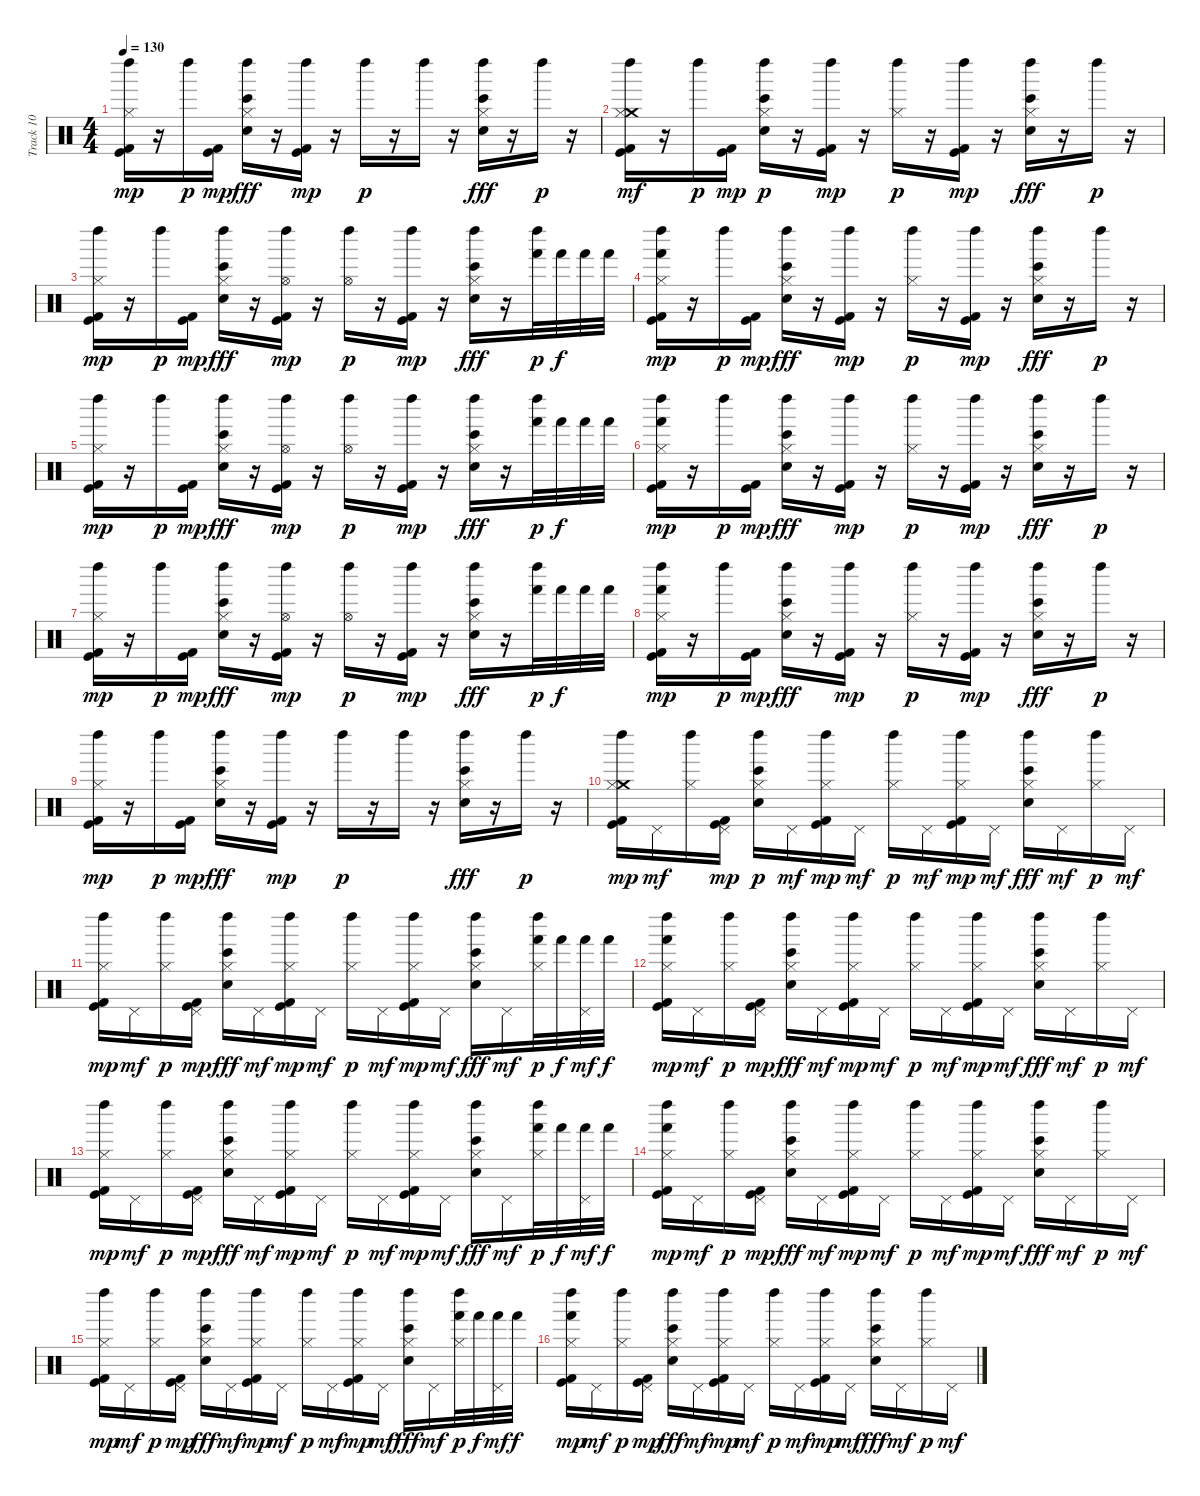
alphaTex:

\track ("Track 10" "Track 10") {instrument percussion}
\staff {score}
\articulation defaults
\ts (4 4)
\tempo 130
\clef neutral
\ks c
("Hi-Hat (closed)" "Left Maraca (hit)" "Kick (hit) 2" "Kick (hit)").16{dy mp} r.16 "Left Maraca (hit)".16{dy p} ("Kick (hit) 2" "Kick (hit)").16{dy mp} ("Hi-Hat (closed)" "Left Maraca (hit)" "Hand Clap (hit)" "Bongo High (hit)").16{dy fff} r.16 ("Left Maraca (hit)" "Kick (hit) 2" "Kick (hit)").16{dy mp} r.16 "Left Maraca (hit)".16{dy p} r.16 "Left Maraca (hit)".16 r.16 ("Hi-Hat (closed)" "Left Maraca (hit)" "Hand Clap (hit)" "Bongo High (hit)").16{dy fff} r.16 "Left Maraca (hit)".16{dy p} r.16 |
("Crash medium (hit)" "Left Maraca (hit)" "Kick (hit)" "Kick (hit) 2" "Hi-Hat (closed)").16{dy mf} r.16 "Left Maraca (hit)".16{dy p} ("Kick (hit) 2" "Kick (hit)").16{dy mp} ("Hand Clap (hit)" "Bongo High (hit)" "Hi-Hat (closed)" "Left Maraca (hit)").16{dy p} r.16 ("Left Maraca (hit)" "Kick (hit) 2" "Kick (hit)").16{dy mp} r.16 ("Hi-Hat (closed)" "Left Maraca (hit)").16{dy p} r.16 ("Left Maraca (hit)" "Kick (hit) 2" "Kick (hit)").16{dy mp} r.16 ("Hi-Hat (closed)" "Left Maraca (hit)" "Hand Clap (hit)" "Bongo High (hit)").16{dy fff} r.16 "Left Maraca (hit)".16{dy p} r.16 |
("Hi-Hat (closed)" "Left Maraca (hit)" "Kick (hit) 2" "Kick (hit)").16{dy mp} r.16 "Left Maraca (hit)".16{dy p} ("Kick (hit) 2" "Kick (hit)").16{dy mp} ("Hi-Hat (closed)" "Left Maraca (hit)" "Hand Clap (hit)" "Bongo High (hit)").16{dy fff} r.16 ("Hi-Hat (open)" "Left Maraca (hit)" "Kick (hit) 2" "Kick (hit)").16{dy mp} r.16 ("Hi-Hat (open)" "Left Maraca (hit)").16{dy p} r.16 ("Left Maraca (hit)" "Kick (hit) 2" "Kick (hit)").16{dy mp} r.16 ("Hi-Hat (closed)" "Left Maraca (hit)" "Hand Clap (hit)" "Bongo High (hit)").16{dy fff} r.16 ("Hand (hit)" "Left Maraca (hit)").32{dy p} "Hand (hit)".32{dy f} "Hand (hit)".32 "Hand (hit)".32 |
("Hand (hit)" "Hi-Hat (closed)" "Left Maraca (hit)" "Kick (hit) 2" "Kick (hit)").16{dy mp} r.16 "Left Maraca (hit)".16{dy p} ("Kick (hit) 2" "Kick (hit)").16{dy mp} ("Hi-Hat (closed)" "Left Maraca (hit)" "Hand Clap (hit)" "Bongo High (hit)").16{dy fff} r.16 ("Left Maraca (hit)" "Kick (hit) 2" "Kick (hit)").16{dy mp} r.16 ("Hi-Hat (closed)" "Left Maraca (hit)").16{dy p} r.16 ("Left Maraca (hit)" "Kick (hit) 2" "Kick (hit)").16{dy mp} r.16 ("Hi-Hat (closed)" "Left Maraca (hit)" "Hand Clap (hit)" "Bongo High (hit)").16{dy fff} r.16 "Left Maraca (hit)".16{dy p} r.16 |
("Hi-Hat (closed)" "Left Maraca (hit)" "Kick (hit) 2" "Kick (hit)").16{dy mp} r.16 "Left Maraca (hit)".16{dy p} ("Kick (hit) 2" "Kick (hit)").16{dy mp} ("Hi-Hat (closed)" "Left Maraca (hit)" "Hand Clap (hit)" "Bongo High (hit)").16{dy fff} r.16 ("Hi-Hat (open)" "Left Maraca (hit)" "Kick (hit) 2" "Kick (hit)").16{dy mp} r.16 ("Hi-Hat (open)" "Left Maraca (hit)").16{dy p} r.16 ("Left Maraca (hit)" "Kick (hit) 2" "Kick (hit)").16{dy mp} r.16 ("Hi-Hat (closed)" "Left Maraca (hit)" "Hand Clap (hit)" "Bongo High (hit)").16{dy fff} r.16 ("Hand (hit)" "Left Maraca (hit)").32{dy p} "Hand (hit)".32{dy f} "Hand (hit)".32 "Hand (hit)".32 |
("Hand (hit)" "Hi-Hat (closed)" "Left Maraca (hit)" "Kick (hit) 2" "Kick (hit)").16{dy mp} r.16 "Left Maraca (hit)".16{dy p} ("Kick (hit) 2" "Kick (hit)").16{dy mp} ("Hi-Hat (closed)" "Left Maraca (hit)" "Hand Clap (hit)" "Bongo High (hit)").16{dy fff} r.16 ("Left Maraca (hit)" "Kick (hit) 2" "Kick (hit)").16{dy mp} r.16 ("Hi-Hat (closed)" "Left Maraca (hit)").16{dy p} r.16 ("Left Maraca (hit)" "Kick (hit) 2" "Kick (hit)").16{dy mp} r.16 ("Hi-Hat (closed)" "Left Maraca (hit)" "Hand Clap (hit)" "Bongo High (hit)").16{dy fff} r.16 "Left Maraca (hit)".16{dy p} r.16 |
("Hi-Hat (closed)" "Left Maraca (hit)" "Kick (hit) 2" "Kick (hit)").16{dy mp} r.16 "Left Maraca (hit)".16{dy p} ("Kick (hit) 2" "Kick (hit)").16{dy mp} ("Hi-Hat (closed)" "Left Maraca (hit)" "Hand Clap (hit)" "Bongo High (hit)").16{dy fff} r.16 ("Hi-Hat (open)" "Left Maraca (hit)" "Kick (hit) 2" "Kick (hit)").16{dy mp} r.16 ("Hi-Hat (open)" "Left Maraca (hit)").16{dy p} r.16 ("Left Maraca (hit)" "Kick (hit) 2" "Kick (hit)").16{dy mp} r.16 ("Hi-Hat (closed)" "Left Maraca (hit)" "Hand Clap (hit)" "Bongo High (hit)").16{dy fff} r.16 ("Hand (hit)" "Left Maraca (hit)").32{dy p} "Hand (hit)".32{dy f} "Hand (hit)".32 "Hand (hit)".32 |
("Hand (hit)" "Hi-Hat (closed)" "Left Maraca (hit)" "Kick (hit) 2" "Kick (hit)").16{dy mp} r.16 "Left Maraca (hit)".16{dy p} ("Kick (hit) 2" "Kick (hit)").16{dy mp} ("Hi-Hat (closed)" "Left Maraca (hit)" "Hand Clap (hit)" "Bongo High (hit)").16{dy fff} r.16 ("Left Maraca (hit)" "Kick (hit) 2" "Kick (hit)").16{dy mp} r.16 ("Hi-Hat (closed)" "Left Maraca (hit)").16{dy p} r.16 ("Left Maraca (hit)" "Kick (hit) 2" "Kick (hit)").16{dy mp} r.16 ("Hi-Hat (closed)" "Left Maraca (hit)" "Hand Clap (hit)" "Bongo High (hit)").16{dy fff} r.16 "Left Maraca (hit)".16{dy p} r.16 |
("Hi-Hat (closed)" "Left Maraca (hit)" "Kick (hit) 2" "Kick (hit)").16{dy mp} r.16 "Left Maraca (hit)".16{dy p} ("Kick (hit) 2" "Kick (hit)").16{dy mp} ("Hi-Hat (closed)" "Left Maraca (hit)" "Hand Clap (hit)" "Bongo High (hit)").16{dy fff} r.16 ("Left Maraca (hit)" "Kick (hit) 2" "Kick (hit)").16{dy mp} r.16 "Left Maraca (hit)".16{dy p} r.16 "Left Maraca (hit)".16 r.16 ("Hi-Hat (closed)" "Left Maraca (hit)" "Hand Clap (hit)" "Bongo High (hit)").16{dy fff} r.16 "Left Maraca (hit)".16{dy p} r.16 |
("Crash medium (hit)" "Hi-Hat (closed)" "Left Maraca (hit)" "Kick (hit) 2" "Kick (hit)").16{dy mp} "Pedal Hi-Hat (hit)".16{dy mf} ("Left Maraca (hit)" "Hi-Hat (closed)").16 ("Pedal Hi-Hat (hit)" "Kick (hit) 2" "Kick (hit)").16{dy mp} ("Hand Clap (hit)" "Bongo High (hit)" "Hi-Hat (closed)" "Left Maraca (hit)").16{dy p} "Pedal Hi-Hat (hit)".16{dy mf} ("Hi-Hat (closed)" "Left Maraca (hit)" "Kick (hit) 2" "Kick (hit)").16{dy mp} "Pedal Hi-Hat (hit)".16{dy mf} ("Hi-Hat (closed)" "Left Maraca (hit)").16{dy p} "Pedal Hi-Hat (hit)".16{dy mf} ("Hi-Hat (closed)" "Left Maraca (hit)" "Kick (hit) 2" "Kick (hit)").16{dy mp} "Pedal Hi-Hat (hit)".16{dy mf} ("Hi-Hat (closed)" "Left Maraca (hit)" "Hand Clap (hit)" "Bongo High (hit)").16{dy fff} "Pedal Hi-Hat (hit)".16{dy mf} ("Hi-Hat (closed)" "Left Maraca (hit)").16{dy p} "Pedal Hi-Hat (hit)".16{dy mf} |
("Hi-Hat (closed)" "Left Maraca (hit)" "Kick (hit) 2" "Kick (hit)").16{dy mp} "Pedal Hi-Hat (hit)".16{dy mf} ("Hi-Hat (closed)" "Left Maraca (hit)").16{dy p} ("Pedal Hi-Hat (hit)" "Kick (hit) 2" "Kick (hit)").16{dy mp} ("Hi-Hat (closed)" "Left Maraca (hit)" "Hand Clap (hit)" "Bongo High (hit)").16{dy fff} "Pedal Hi-Hat (hit)".16{dy mf} ("Hi-Hat (closed)" "Left Maraca (hit)" "Kick (hit) 2" "Kick (hit)").16{dy mp} "Pedal Hi-Hat (hit)".16{dy mf} ("Hi-Hat (closed)" "Left Maraca (hit)").16{dy p} "Pedal Hi-Hat (hit)".16{dy mf} ("Hi-Hat (closed)" "Left Maraca (hit)" "Kick (hit) 2" "Kick (hit)").16{dy mp} "Pedal Hi-Hat (hit)".16{dy mf} ("Hi-Hat (closed)" "Left Maraca (hit)" "Hand Clap (hit)" "Bongo High (hit)").16{dy fff} "Pedal Hi-Hat (hit)".16{dy mf} ("Hi-Hat (closed)" "Hand (hit)" "Left Maraca (hit)").32{dy p} "Hand (hit)".32{dy f} ("Pedal Hi-Hat (hit)" "Hand (hit)").32{dy mf} "Hand (hit)".32{dy f} |
("Hand (hit)" "Hi-Hat (closed)" "Left Maraca (hit)" "Kick (hit) 2" "Kick (hit)").16{dy mp} "Pedal Hi-Hat (hit)".16{dy mf} ("Hi-Hat (closed)" "Left Maraca (hit)").16{dy p} ("Pedal Hi-Hat (hit)" "Kick (hit) 2" "Kick (hit)").16{dy mp} ("Hi-Hat (closed)" "Left Maraca (hit)" "Hand Clap (hit)" "Bongo High (hit)").16{dy fff} "Pedal Hi-Hat (hit)".16{dy mf} ("Hi-Hat (closed)" "Left Maraca (hit)" "Kick (hit) 2" "Kick (hit)").16{dy mp} "Pedal Hi-Hat (hit)".16{dy mf} ("Hi-Hat (closed)" "Left Maraca (hit)").16{dy p} "Pedal Hi-Hat (hit)".16{dy mf} ("Hi-Hat (closed)" "Left Maraca (hit)" "Kick (hit) 2" "Kick (hit)").16{dy mp} "Pedal Hi-Hat (hit)".16{dy mf} ("Hi-Hat (closed)" "Left Maraca (hit)" "Hand Clap (hit)" "Bongo High (hit)").16{dy fff} "Pedal Hi-Hat (hit)".16{dy mf} ("Hi-Hat (closed)" "Left Maraca (hit)").16{dy p} "Pedal Hi-Hat (hit)".16{dy mf} |
("Hi-Hat (closed)" "Left Maraca (hit)" "Kick (hit) 2" "Kick (hit)").16{dy mp} "Pedal Hi-Hat (hit)".16{dy mf} ("Hi-Hat (closed)" "Left Maraca (hit)").16{dy p} ("Pedal Hi-Hat (hit)" "Kick (hit) 2" "Kick (hit)").16{dy mp} ("Hi-Hat (closed)" "Left Maraca (hit)" "Hand Clap (hit)" "Bongo High (hit)").16{dy fff} "Pedal Hi-Hat (hit)".16{dy mf} ("Hi-Hat (closed)" "Left Maraca (hit)" "Kick (hit) 2" "Kick (hit)").16{dy mp} "Pedal Hi-Hat (hit)".16{dy mf} ("Hi-Hat (closed)" "Left Maraca (hit)").16{dy p} "Pedal Hi-Hat (hit)".16{dy mf} ("Hi-Hat (closed)" "Left Maraca (hit)" "Kick (hit) 2" "Kick (hit)").16{dy mp} "Pedal Hi-Hat (hit)".16{dy mf} ("Hi-Hat (closed)" "Left Maraca (hit)" "Hand Clap (hit)" "Bongo High (hit)").16{dy fff} "Pedal Hi-Hat (hit)".16{dy mf} ("Hi-Hat (closed)" "Hand (hit)" "Left Maraca (hit)").32{dy p} "Hand (hit)".32{dy f} ("Pedal Hi-Hat (hit)" "Hand (hit)").32{dy mf} "Hand (hit)".32{dy f} |
("Hand (hit)" "Hi-Hat (closed)" "Left Maraca (hit)" "Kick (hit) 2" "Kick (hit)").16{dy mp} "Pedal Hi-Hat (hit)".16{dy mf} ("Hi-Hat (closed)" "Left Maraca (hit)").16{dy p} ("Pedal Hi-Hat (hit)" "Kick (hit) 2" "Kick (hit)").16{dy mp} ("Hi-Hat (closed)" "Left Maraca (hit)" "Hand Clap (hit)" "Bongo High (hit)").16{dy fff} "Pedal Hi-Hat (hit)".16{dy mf} ("Hi-Hat (closed)" "Left Maraca (hit)" "Kick (hit) 2" "Kick (hit)").16{dy mp} "Pedal Hi-Hat (hit)".16{dy mf} ("Hi-Hat (closed)" "Left Maraca (hit)").16{dy p} "Pedal Hi-Hat (hit)".16{dy mf} ("Hi-Hat (closed)" "Left Maraca (hit)" "Kick (hit) 2" "Kick (hit)").16{dy mp} "Pedal Hi-Hat (hit)".16{dy mf} ("Hi-Hat (closed)" "Left Maraca (hit)" "Hand Clap (hit)" "Bongo High (hit)").16{dy fff} "Pedal Hi-Hat (hit)".16{dy mf} ("Hi-Hat (closed)" "Left Maraca (hit)").16{dy p} "Pedal Hi-Hat (hit)".16{dy mf} |
("Hi-Hat (closed)" "Left Maraca (hit)" "Kick (hit) 2" "Kick (hit)").16{dy mp} "Pedal Hi-Hat (hit)".16{dy mf} ("Hi-Hat (closed)" "Left Maraca (hit)").16{dy p} ("Pedal Hi-Hat (hit)" "Kick (hit) 2" "Kick (hit)").16{dy mp} ("Hi-Hat (closed)" "Left Maraca (hit)" "Hand Clap (hit)" "Bongo High (hit)").16{dy fff} "Pedal Hi-Hat (hit)".16{dy mf} ("Hi-Hat (closed)" "Left Maraca (hit)" "Kick (hit) 2" "Kick (hit)").16{dy mp} "Pedal Hi-Hat (hit)".16{dy mf} ("Hi-Hat (closed)" "Left Maraca (hit)").16{dy p} "Pedal Hi-Hat (hit)".16{dy mf} ("Hi-Hat (closed)" "Left Maraca (hit)" "Kick (hit) 2" "Kick (hit)").16{dy mp} "Pedal Hi-Hat (hit)".16{dy mf} ("Hi-Hat (closed)" "Left Maraca (hit)" "Hand Clap (hit)" "Bongo High (hit)").16{dy fff} "Pedal Hi-Hat (hit)".16{dy mf} ("Hi-Hat (closed)" "Hand (hit)" "Left Maraca (hit)").32{dy p} "Hand (hit)".32{dy f} ("Pedal Hi-Hat (hit)" "Hand (hit)").32{dy mf} "Hand (hit)".32{dy f} |
("Hand (hit)" "Hi-Hat (closed)" "Left Maraca (hit)" "Kick (hit) 2" "Kick (hit)").16{dy mp} "Pedal Hi-Hat (hit)".16{dy mf} ("Hi-Hat (closed)" "Left Maraca (hit)").16{dy p} ("Pedal Hi-Hat (hit)" "Kick (hit) 2" "Kick (hit)").16{dy mp} ("Hi-Hat (closed)" "Left Maraca (hit)" "Hand Clap (hit)" "Bongo High (hit)").16{dy fff} "Pedal Hi-Hat (hit)".16{dy mf} ("Hi-Hat (closed)" "Left Maraca (hit)" "Kick (hit) 2" "Kick (hit)").16{dy mp} "Pedal Hi-Hat (hit)".16{dy mf} ("Hi-Hat (closed)" "Left Maraca (hit)").16{dy p} "Pedal Hi-Hat (hit)".16{dy mf} ("Hi-Hat (closed)" "Left Maraca (hit)" "Kick (hit) 2" "Kick (hit)").16{dy mp} "Pedal Hi-Hat (hit)".16{dy mf} ("Hi-Hat (closed)" "Left Maraca (hit)" "Hand Clap (hit)" "Bongo High (hit)").16{dy fff} "Pedal Hi-Hat (hit)".16{dy mf} ("Hi-Hat (closed)" "Left Maraca (hit)").16{dy p} "Pedal Hi-Hat (hit)".16{dy mf}
